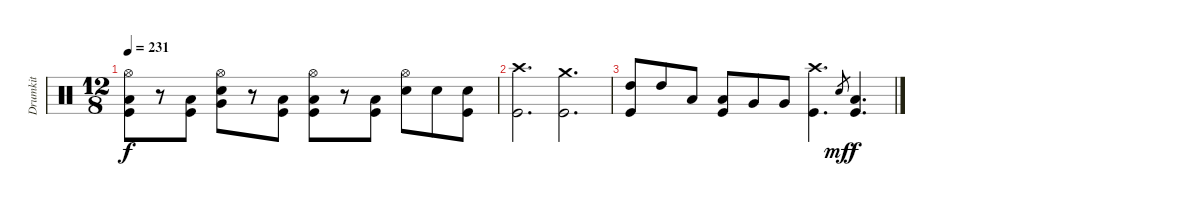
\track ("Drumkit" "Drumkit") {instrument percussion}
\staff {score}
\articulation defaults
\ts (12 8)
\tempo 231
\clef neutral
\ks c
("Hi-Hat (open)" "Low Floor Tom (hit)" "Kick (hit)").8{dy f} r.8 ("Low Floor Tom (hit)" "Kick (hit)").8 ("Hi-Hat (open)" "Very Low Tom (hit)" "Snare (hit) 2").8 r.8 ("Low Floor Tom (hit)" "Kick (hit)").8 ("Hi-Hat (open)" "Low Floor Tom (hit)" "Kick (hit)").8 r.8 ("Low Floor Tom (hit)" "Kick (hit)").8 ("Hi-Hat (open)" "Snare (hit) 2").8 "Snare (hit) 2".8 ("Snare (hit) 2" "Kick (hit)").8 |
("Crash high (hit)" "Kick (hit)").2{d} ("Crash medium (hit)" "Kick (hit)").2{d} |
("High Tom (hit)" "Kick (hit)").8 "High Tom (hit)".8 "Low Tom (hit)".8 ("Low Tom (hit)" "Kick (hit)").8 "Very Low Tom (hit)".8 "Very Low Tom (hit)".8 ("Crash high (hit)" "Kick (hit)").4{d} "Snare (hit)".8{gr dy mf} ("Low Floor Tom (hit)" "Kick (hit)").4{d dy f}
